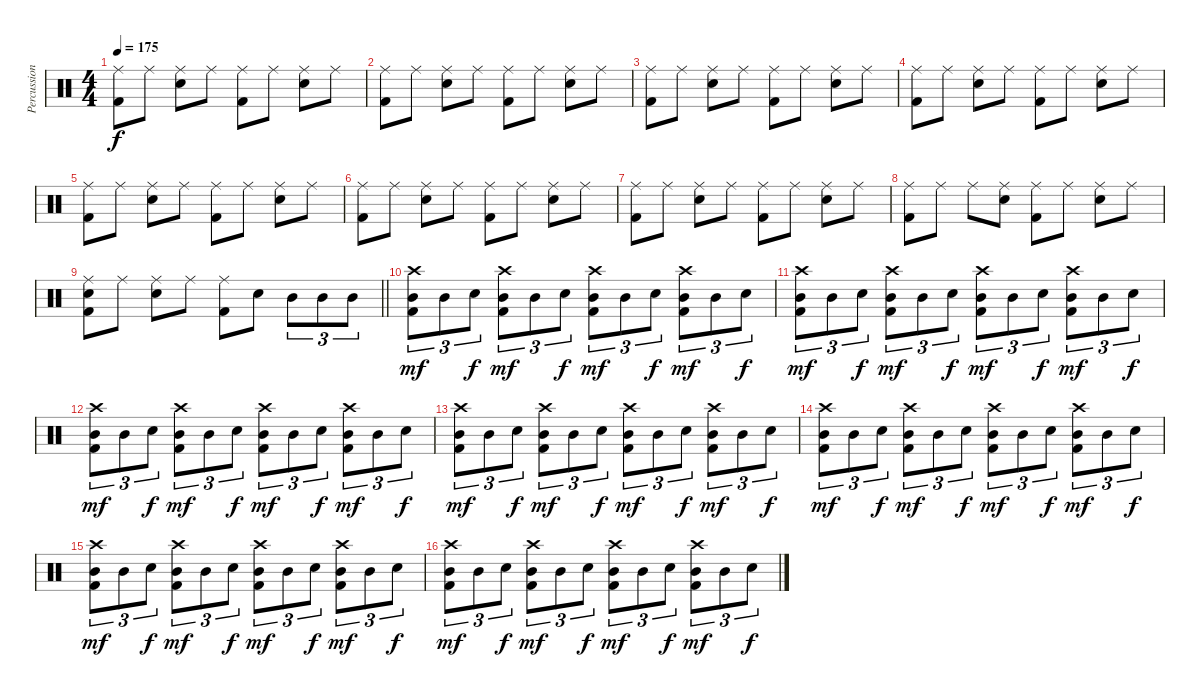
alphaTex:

\track ("Percussion" "Percussion") {instrument percussion}
\staff {score}
\articulation defaults
\ts (4 4)
\tempo 175
\clef neutral
\ks c
("Ride (middle)" "Kick (hit) 2").8{dy f} "Ride (middle)".8 ("Ride (middle)" "Snare (hit) 2").8 "Ride (middle)".8 ("Ride (middle)" "Kick (hit) 2").8 "Ride (middle)".8 ("Ride (middle)" "Snare (hit) 2").8 "Ride (middle)".8 |
("Ride (middle)" "Kick (hit) 2").8 "Ride (middle)".8 ("Ride (middle)" "Snare (hit) 2").8 "Ride (middle)".8 ("Ride (middle)" "Kick (hit) 2").8 "Ride (middle)".8 ("Ride (middle)" "Snare (hit) 2").8 "Ride (middle)".8 |
("Ride (middle)" "Kick (hit) 2").8 "Ride (middle)".8 ("Ride (middle)" "Snare (hit) 2").8 "Ride (middle)".8 ("Ride (middle)" "Kick (hit) 2").8 "Ride (middle)".8 ("Ride (middle)" "Snare (hit) 2").8 "Ride (middle)".8 |
("Ride (middle)" "Kick (hit) 2").8 "Ride (middle)".8 ("Ride (middle)" "Snare (hit) 2").8 "Ride (middle)".8 ("Ride (middle)" "Kick (hit) 2").8 "Ride (middle)".8 ("Ride (middle)" "Snare (hit) 2").8 "Ride (middle)".8 |
("Ride (middle)" "Kick (hit) 2").8 "Ride (middle)".8 ("Ride (middle)" "Snare (hit) 2").8 "Ride (middle)".8 ("Ride (middle)" "Kick (hit) 2").8 "Ride (middle)".8 ("Ride (middle)" "Snare (hit) 2").8 "Ride (middle)".8 |
("Ride (middle)" "Kick (hit) 2").8 "Ride (middle)".8 ("Ride (middle)" "Snare (hit) 2").8 "Ride (middle)".8 ("Ride (middle)" "Kick (hit) 2").8 "Ride (middle)".8 ("Ride (middle)" "Snare (hit) 2").8 "Ride (middle)".8 |
("Ride (middle)" "Kick (hit) 2").8 "Ride (middle)".8 ("Ride (middle)" "Snare (hit) 2").8 "Ride (middle)".8 ("Ride (middle)" "Kick (hit) 2").8 "Ride (middle)".8 ("Ride (middle)" "Snare (hit) 2").8 "Ride (middle)".8 |
("Ride (middle)" "Kick (hit) 2").8 "Ride (middle)".8 "Ride (middle)".8 ("Ride (middle)" "Snare (hit) 2").8 ("Ride (middle)" "Kick (hit) 2").8 "Ride (middle)".8 ("Ride (middle)" "Snare (hit) 2").8 "Ride (middle)".8 |
\barLineRight lightlight
("Ride (middle)" "Snare (hit) 2" "Kick (hit) 2").8 "Ride (middle)".8 ("Ride (middle)" "Snare (hit) 2").8 "Ride (middle)".8 ("Ride (middle)" "Kick (hit) 2").8 "Snare (hit) 2".8 "Mid Tom (hit)".8{tu (3 2)} "Mid Tom (hit)".8{tu (3 2)} "Mid Tom (hit)".8{tu (3 2)} |
("Mid Tom (hit)" "Crash high (hit)" "Kick (hit) 2").8{tu (3 2) dy mf} "Mid Tom (hit)".8{tu (3 2)} "Snare (hit) 2".8{tu (3 2) dy f} ("Mid Tom (hit)" "Crash high (hit)" "Kick (hit) 2").8{tu (3 2) dy mf} "Mid Tom (hit)".8{tu (3 2)} "Snare (hit) 2".8{tu (3 2) dy f} ("Mid Tom (hit)" "Crash high (hit)" "Kick (hit) 2").8{tu (3 2) dy mf} "Mid Tom (hit)".8{tu (3 2)} "Snare (hit) 2".8{tu (3 2) dy f} ("Mid Tom (hit)" "Crash high (hit)" "Kick (hit) 2").8{tu (3 2) dy mf} "Mid Tom (hit)".8{tu (3 2)} "Snare (hit) 2".8{tu (3 2) dy f} |
("Mid Tom (hit)" "Crash high (hit)" "Kick (hit) 2").8{tu (3 2) dy mf} "Mid Tom (hit)".8{tu (3 2)} "Snare (hit) 2".8{tu (3 2) dy f} ("Mid Tom (hit)" "Crash high (hit)" "Kick (hit) 2").8{tu (3 2) dy mf} "Mid Tom (hit)".8{tu (3 2)} "Snare (hit) 2".8{tu (3 2) dy f} ("Mid Tom (hit)" "Crash high (hit)" "Kick (hit) 2").8{tu (3 2) dy mf} "Mid Tom (hit)".8{tu (3 2)} "Snare (hit) 2".8{tu (3 2) dy f} ("Mid Tom (hit)" "Crash high (hit)" "Kick (hit) 2").8{tu (3 2) dy mf} "Mid Tom (hit)".8{tu (3 2)} "Snare (hit) 2".8{tu (3 2) dy f} |
("Mid Tom (hit)" "Crash high (hit)" "Kick (hit) 2").8{tu (3 2) dy mf} "Mid Tom (hit)".8{tu (3 2)} "Snare (hit) 2".8{tu (3 2) dy f} ("Mid Tom (hit)" "Crash high (hit)" "Kick (hit) 2").8{tu (3 2) dy mf} "Mid Tom (hit)".8{tu (3 2)} "Snare (hit) 2".8{tu (3 2) dy f} ("Mid Tom (hit)" "Crash high (hit)" "Kick (hit) 2").8{tu (3 2) dy mf} "Mid Tom (hit)".8{tu (3 2)} "Snare (hit) 2".8{tu (3 2) dy f} ("Mid Tom (hit)" "Crash high (hit)" "Kick (hit) 2").8{tu (3 2) dy mf} "Mid Tom (hit)".8{tu (3 2)} "Snare (hit) 2".8{tu (3 2) dy f} |
("Mid Tom (hit)" "Crash high (hit)" "Kick (hit) 2").8{tu (3 2) dy mf} "Mid Tom (hit)".8{tu (3 2)} "Snare (hit) 2".8{tu (3 2) dy f} ("Mid Tom (hit)" "Crash high (hit)" "Kick (hit) 2").8{tu (3 2) dy mf} "Mid Tom (hit)".8{tu (3 2)} "Snare (hit) 2".8{tu (3 2) dy f} ("Mid Tom (hit)" "Crash high (hit)" "Kick (hit) 2").8{tu (3 2) dy mf} "Mid Tom (hit)".8{tu (3 2)} "Snare (hit) 2".8{tu (3 2) dy f} ("Mid Tom (hit)" "Crash high (hit)" "Kick (hit) 2").8{tu (3 2) dy mf} "Mid Tom (hit)".8{tu (3 2)} "Snare (hit) 2".8{tu (3 2) dy f} |
("Mid Tom (hit)" "Crash high (hit)" "Kick (hit) 2").8{tu (3 2) dy mf} "Mid Tom (hit)".8{tu (3 2)} "Snare (hit) 2".8{tu (3 2) dy f} ("Mid Tom (hit)" "Crash high (hit)" "Kick (hit) 2").8{tu (3 2) dy mf} "Mid Tom (hit)".8{tu (3 2)} "Snare (hit) 2".8{tu (3 2) dy f} ("Mid Tom (hit)" "Crash high (hit)" "Kick (hit) 2").8{tu (3 2) dy mf} "Mid Tom (hit)".8{tu (3 2)} "Snare (hit) 2".8{tu (3 2) dy f} ("Mid Tom (hit)" "Crash high (hit)" "Kick (hit) 2").8{tu (3 2) dy mf} "Mid Tom (hit)".8{tu (3 2)} "Snare (hit) 2".8{tu (3 2) dy f} |
("Mid Tom (hit)" "Crash high (hit)" "Kick (hit) 2").8{tu (3 2) dy mf} "Mid Tom (hit)".8{tu (3 2)} "Snare (hit) 2".8{tu (3 2) dy f} ("Mid Tom (hit)" "Crash high (hit)" "Kick (hit) 2").8{tu (3 2) dy mf} "Mid Tom (hit)".8{tu (3 2)} "Snare (hit) 2".8{tu (3 2) dy f} ("Mid Tom (hit)" "Crash high (hit)" "Kick (hit) 2").8{tu (3 2) dy mf} "Mid Tom (hit)".8{tu (3 2)} "Snare (hit) 2".8{tu (3 2) dy f} ("Mid Tom (hit)" "Crash high (hit)" "Kick (hit) 2").8{tu (3 2) dy mf} "Mid Tom (hit)".8{tu (3 2)} "Snare (hit) 2".8{tu (3 2) dy f} |
("Mid Tom (hit)" "Crash high (hit)" "Kick (hit) 2").8{tu (3 2) dy mf} "Mid Tom (hit)".8{tu (3 2)} "Snare (hit) 2".8{tu (3 2) dy f} ("Mid Tom (hit)" "Crash high (hit)" "Kick (hit) 2").8{tu (3 2) dy mf} "Mid Tom (hit)".8{tu (3 2)} "Snare (hit) 2".8{tu (3 2) dy f} ("Mid Tom (hit)" "Crash high (hit)" "Kick (hit) 2").8{tu (3 2) dy mf} "Mid Tom (hit)".8{tu (3 2)} "Snare (hit) 2".8{tu (3 2) dy f} ("Mid Tom (hit)" "Crash high (hit)" "Kick (hit) 2").8{tu (3 2) dy mf} "Mid Tom (hit)".8{tu (3 2)} "Snare (hit) 2".8{tu (3 2) dy f}
